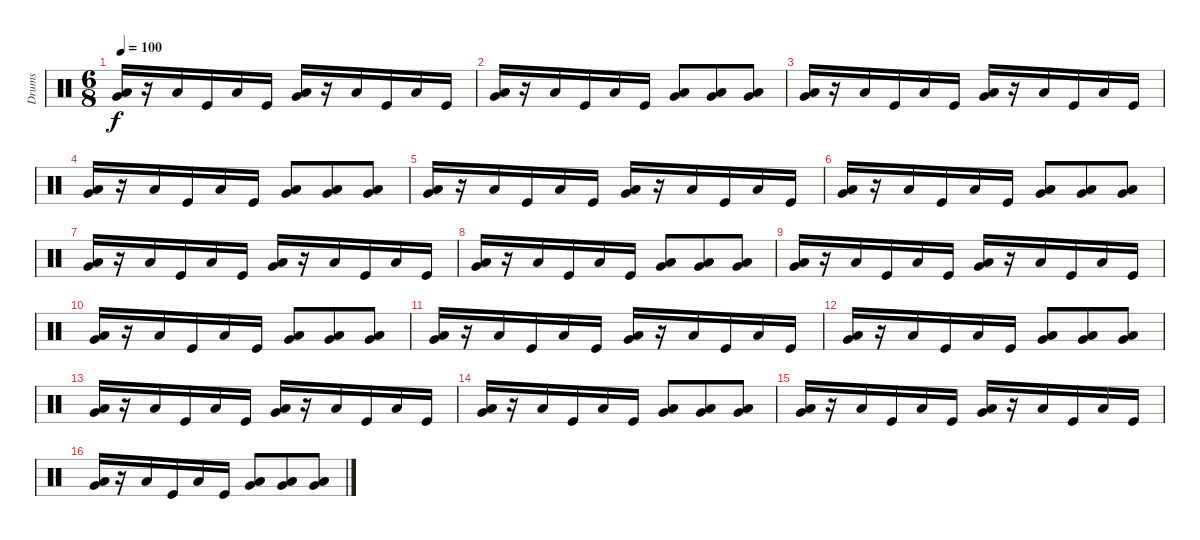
\track ("Drums" "Drums") {instrument percussion}
\staff {score}
\articulation defaults
\ts (6 8)
\tempo 100
\clef neutral
\ks c
("Low Floor Tom (hit)" "Very Low Tom (hit)").16{dy f} r.16 "Low Floor Tom (hit)".16 "Kick (hit)".16 "Low Floor Tom (hit)".16 "Kick (hit)".16 ("Low Floor Tom (hit)" "Very Low Tom (hit)").16 r.16 "Low Floor Tom (hit)".16 "Kick (hit)".16 "Low Floor Tom (hit)".16 "Kick (hit)".16 |
("Low Floor Tom (hit)" "Very Low Tom (hit)").16 r.16 "Low Floor Tom (hit)".16 "Kick (hit)".16 "Low Floor Tom (hit)".16 "Kick (hit)".16 ("Low Floor Tom (hit)" "Very Low Tom (hit)").8 ("Low Floor Tom (hit)" "Very Low Tom (hit)").8 ("Low Floor Tom (hit)" "Very Low Tom (hit)").8 |
("Low Floor Tom (hit)" "Very Low Tom (hit)").16 r.16 "Low Floor Tom (hit)".16 "Kick (hit)".16 "Low Floor Tom (hit)".16 "Kick (hit)".16 ("Low Floor Tom (hit)" "Very Low Tom (hit)").16 r.16 "Low Floor Tom (hit)".16 "Kick (hit)".16 "Low Floor Tom (hit)".16 "Kick (hit)".16 |
("Low Floor Tom (hit)" "Very Low Tom (hit)").16 r.16 "Low Floor Tom (hit)".16 "Kick (hit)".16 "Low Floor Tom (hit)".16 "Kick (hit)".16 ("Low Floor Tom (hit)" "Very Low Tom (hit)").8 ("Low Floor Tom (hit)" "Very Low Tom (hit)").8 ("Low Floor Tom (hit)" "Very Low Tom (hit)").8 |
("Low Floor Tom (hit)" "Very Low Tom (hit)").16 r.16 "Low Floor Tom (hit)".16 "Kick (hit)".16 "Low Floor Tom (hit)".16 "Kick (hit)".16 ("Low Floor Tom (hit)" "Very Low Tom (hit)").16 r.16 "Low Floor Tom (hit)".16 "Kick (hit)".16 "Low Floor Tom (hit)".16 "Kick (hit)".16 |
("Low Floor Tom (hit)" "Very Low Tom (hit)").16 r.16 "Low Floor Tom (hit)".16 "Kick (hit)".16 "Low Floor Tom (hit)".16 "Kick (hit)".16 ("Low Floor Tom (hit)" "Very Low Tom (hit)").8 ("Low Floor Tom (hit)" "Very Low Tom (hit)").8 ("Low Floor Tom (hit)" "Very Low Tom (hit)").8 |
("Low Floor Tom (hit)" "Very Low Tom (hit)").16 r.16 "Low Floor Tom (hit)".16 "Kick (hit)".16 "Low Floor Tom (hit)".16 "Kick (hit)".16 ("Low Floor Tom (hit)" "Very Low Tom (hit)").16 r.16 "Low Floor Tom (hit)".16 "Kick (hit)".16 "Low Floor Tom (hit)".16 "Kick (hit)".16 |
("Low Floor Tom (hit)" "Very Low Tom (hit)").16 r.16 "Low Floor Tom (hit)".16 "Kick (hit)".16 "Low Floor Tom (hit)".16 "Kick (hit)".16 ("Low Floor Tom (hit)" "Very Low Tom (hit)").8 ("Low Floor Tom (hit)" "Very Low Tom (hit)").8 ("Low Floor Tom (hit)" "Very Low Tom (hit)").8 |
("Low Floor Tom (hit)" "Very Low Tom (hit)").16 r.16 "Low Floor Tom (hit)".16 "Kick (hit)".16 "Low Floor Tom (hit)".16 "Kick (hit)".16 ("Low Floor Tom (hit)" "Very Low Tom (hit)").16 r.16 "Low Floor Tom (hit)".16 "Kick (hit)".16 "Low Floor Tom (hit)".16 "Kick (hit)".16 |
("Low Floor Tom (hit)" "Very Low Tom (hit)").16 r.16 "Low Floor Tom (hit)".16 "Kick (hit)".16 "Low Floor Tom (hit)".16 "Kick (hit)".16 ("Low Floor Tom (hit)" "Very Low Tom (hit)").8 ("Low Floor Tom (hit)" "Very Low Tom (hit)").8 ("Low Floor Tom (hit)" "Very Low Tom (hit)").8 |
("Low Floor Tom (hit)" "Very Low Tom (hit)").16 r.16 "Low Floor Tom (hit)".16 "Kick (hit)".16 "Low Floor Tom (hit)".16 "Kick (hit)".16 ("Low Floor Tom (hit)" "Very Low Tom (hit)").16 r.16 "Low Floor Tom (hit)".16 "Kick (hit)".16 "Low Floor Tom (hit)".16 "Kick (hit)".16 |
("Low Floor Tom (hit)" "Very Low Tom (hit)").16 r.16 "Low Floor Tom (hit)".16 "Kick (hit)".16 "Low Floor Tom (hit)".16 "Kick (hit)".16 ("Low Floor Tom (hit)" "Very Low Tom (hit)").8 ("Low Floor Tom (hit)" "Very Low Tom (hit)").8 ("Low Floor Tom (hit)" "Very Low Tom (hit)").8 |
("Low Floor Tom (hit)" "Very Low Tom (hit)").16 r.16 "Low Floor Tom (hit)".16 "Kick (hit)".16 "Low Floor Tom (hit)".16 "Kick (hit)".16 ("Low Floor Tom (hit)" "Very Low Tom (hit)").16 r.16 "Low Floor Tom (hit)".16 "Kick (hit)".16 "Low Floor Tom (hit)".16 "Kick (hit)".16 |
("Low Floor Tom (hit)" "Very Low Tom (hit)").16 r.16 "Low Floor Tom (hit)".16 "Kick (hit)".16 "Low Floor Tom (hit)".16 "Kick (hit)".16 ("Low Floor Tom (hit)" "Very Low Tom (hit)").8 ("Low Floor Tom (hit)" "Very Low Tom (hit)").8 ("Low Floor Tom (hit)" "Very Low Tom (hit)").8 |
("Low Floor Tom (hit)" "Very Low Tom (hit)").16 r.16 "Low Floor Tom (hit)".16 "Kick (hit)".16 "Low Floor Tom (hit)".16 "Kick (hit)".16 ("Low Floor Tom (hit)" "Very Low Tom (hit)").16 r.16 "Low Floor Tom (hit)".16 "Kick (hit)".16 "Low Floor Tom (hit)".16 "Kick (hit)".16 |
("Low Floor Tom (hit)" "Very Low Tom (hit)").16 r.16 "Low Floor Tom (hit)".16 "Kick (hit)".16 "Low Floor Tom (hit)".16 "Kick (hit)".16 ("Low Floor Tom (hit)" "Very Low Tom (hit)").8 ("Low Floor Tom (hit)" "Very Low Tom (hit)").8 ("Low Floor Tom (hit)" "Very Low Tom (hit)").8
